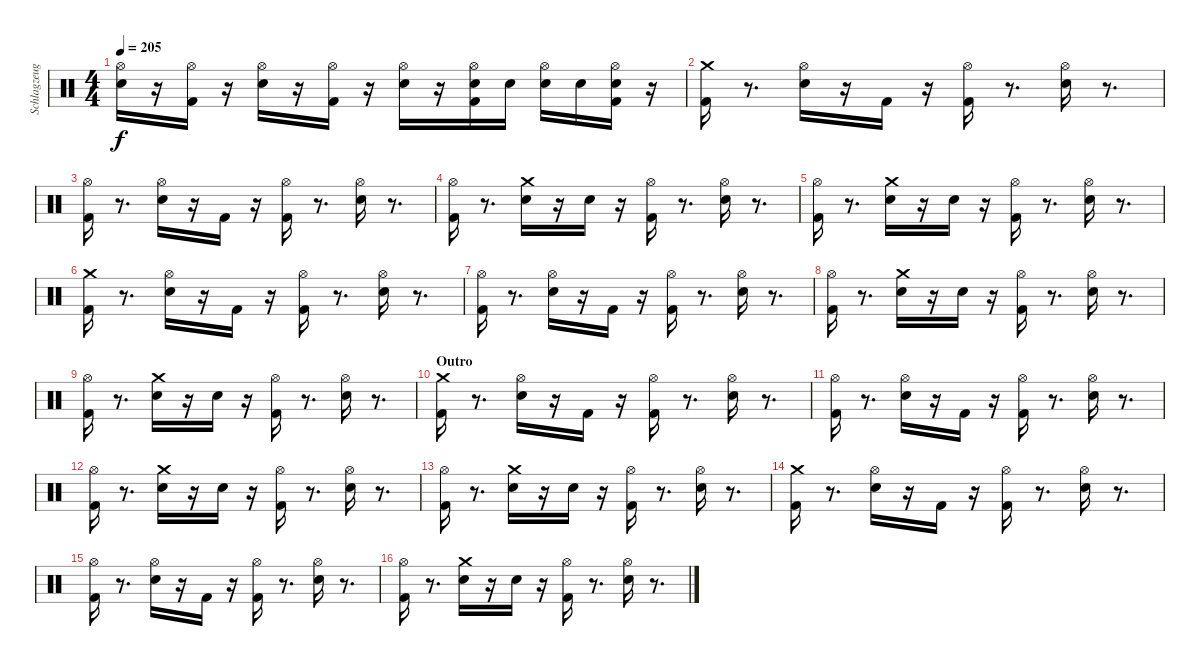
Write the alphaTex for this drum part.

\track ("Schlagzeug - Bela B." "Schlagzeug") {instrument percussion}
\staff {score}
\articulation defaults
\ts (4 4)
\tempo 205
\clef neutral
\ks c
("Electric Snare (hit)" "Hi-Hat (open)").16{dy f} r.16 ("Kick (hit) 2" "Hi-Hat (open)").16 r.16 ("Electric Snare (hit)" "Hi-Hat (open)").16 r.16 ("Kick (hit) 2" "Hi-Hat (open)").16 r.16 ("Electric Snare (hit)" "Hi-Hat (open)").16 r.16 ("Kick (hit) 2" "Hi-Hat (open)" "Electric Snare (hit)").16 "Electric Snare (hit)".16 ("Electric Snare (hit)" "Hi-Hat (open)").16 "Electric Snare (hit)".16 ("Kick (hit) 2" "Hi-Hat (open)" "Electric Snare (hit)").16 r.16 |
("Kick (hit) 2" "Crash medium (hit)").16 r.8{d} ("Electric Snare (hit)" "Hi-Hat (open)").16 r.16 "Kick (hit) 2".16 r.16 ("Kick (hit) 2" "Hi-Hat (open)").16 r.8{d} ("Electric Snare (hit)" "Hi-Hat (open)").16 r.8{d} |
("Kick (hit) 2" "Hi-Hat (open)").16 r.8{d} ("Electric Snare (hit)" "Hi-Hat (open)").16 r.16 "Kick (hit) 2".16 r.16 ("Kick (hit) 2" "Hi-Hat (open)").16 r.8{d} ("Electric Snare (hit)" "Hi-Hat (open)").16 r.8{d} |
("Kick (hit) 2" "Hi-Hat (open)").16 r.8{d} ("Electric Snare (hit)" "Crash medium (hit)").16 r.16 "Electric Snare (hit)".16 r.16 ("Kick (hit) 2" "Hi-Hat (open)").16 r.8{d} ("Electric Snare (hit)" "Hi-Hat (open)").16 r.8{d} |
("Kick (hit) 2" "Hi-Hat (open)").16 r.8{d} ("Electric Snare (hit)" "Crash medium (hit)").16 r.16 "Electric Snare (hit)".16 r.16 ("Kick (hit) 2" "Hi-Hat (open)").16 r.8{d} ("Electric Snare (hit)" "Hi-Hat (open)").16 r.8{d} |
("Kick (hit) 2" "Crash medium (hit)").16 r.8{d} ("Electric Snare (hit)" "Hi-Hat (open)").16 r.16 "Kick (hit) 2".16 r.16 ("Kick (hit) 2" "Hi-Hat (open)").16 r.8{d} ("Electric Snare (hit)" "Hi-Hat (open)").16 r.8{d} |
("Kick (hit) 2" "Hi-Hat (open)").16 r.8{d} ("Electric Snare (hit)" "Hi-Hat (open)").16 r.16 "Kick (hit) 2".16 r.16 ("Kick (hit) 2" "Hi-Hat (open)").16 r.8{d} ("Electric Snare (hit)" "Hi-Hat (open)").16 r.8{d} |
("Kick (hit) 2" "Hi-Hat (open)").16 r.8{d} ("Electric Snare (hit)" "Crash medium (hit)").16 r.16 "Electric Snare (hit)".16 r.16 ("Kick (hit) 2" "Hi-Hat (open)").16 r.8{d} ("Electric Snare (hit)" "Hi-Hat (open)").16 r.8{d} |
("Kick (hit) 2" "Hi-Hat (open)").16 r.8{d} ("Electric Snare (hit)" "Crash medium (hit)").16 r.16 "Electric Snare (hit)".16 r.16 ("Kick (hit) 2" "Hi-Hat (open)").16 r.8{d} ("Electric Snare (hit)" "Hi-Hat (open)").16 r.8{d} |
\section ("" "Outro")
("Kick (hit) 2" "Crash medium (hit)").16 r.8{d} ("Electric Snare (hit)" "Hi-Hat (open)").16 r.16 "Kick (hit) 2".16 r.16 ("Kick (hit) 2" "Hi-Hat (open)").16 r.8{d} ("Electric Snare (hit)" "Hi-Hat (open)").16 r.8{d} |
("Kick (hit) 2" "Hi-Hat (open)").16 r.8{d} ("Electric Snare (hit)" "Hi-Hat (open)").16 r.16 "Kick (hit) 2".16 r.16 ("Kick (hit) 2" "Hi-Hat (open)").16 r.8{d} ("Electric Snare (hit)" "Hi-Hat (open)").16 r.8{d} |
("Kick (hit) 2" "Hi-Hat (open)").16 r.8{d} ("Electric Snare (hit)" "Crash medium (hit)").16 r.16 "Electric Snare (hit)".16 r.16 ("Kick (hit) 2" "Hi-Hat (open)").16 r.8{d} ("Electric Snare (hit)" "Hi-Hat (open)").16 r.8{d} |
("Kick (hit) 2" "Hi-Hat (open)").16 r.8{d} ("Electric Snare (hit)" "Crash medium (hit)").16 r.16 "Electric Snare (hit)".16 r.16 ("Kick (hit) 2" "Hi-Hat (open)").16 r.8{d} ("Electric Snare (hit)" "Hi-Hat (open)").16 r.8{d} |
("Kick (hit) 2" "Crash medium (hit)").16 r.8{d} ("Electric Snare (hit)" "Hi-Hat (open)").16 r.16 "Kick (hit) 2".16 r.16 ("Kick (hit) 2" "Hi-Hat (open)").16 r.8{d} ("Electric Snare (hit)" "Hi-Hat (open)").16 r.8{d} |
("Kick (hit) 2" "Hi-Hat (open)").16 r.8{d} ("Electric Snare (hit)" "Hi-Hat (open)").16 r.16 "Kick (hit) 2".16 r.16 ("Kick (hit) 2" "Hi-Hat (open)").16 r.8{d} ("Electric Snare (hit)" "Hi-Hat (open)").16 r.8{d} |
("Kick (hit) 2" "Hi-Hat (open)").16 r.8{d} ("Electric Snare (hit)" "Crash medium (hit)").16 r.16 "Electric Snare (hit)".16 r.16 ("Kick (hit) 2" "Hi-Hat (open)").16 r.8{d} ("Electric Snare (hit)" "Hi-Hat (open)").16 r.8{d}
